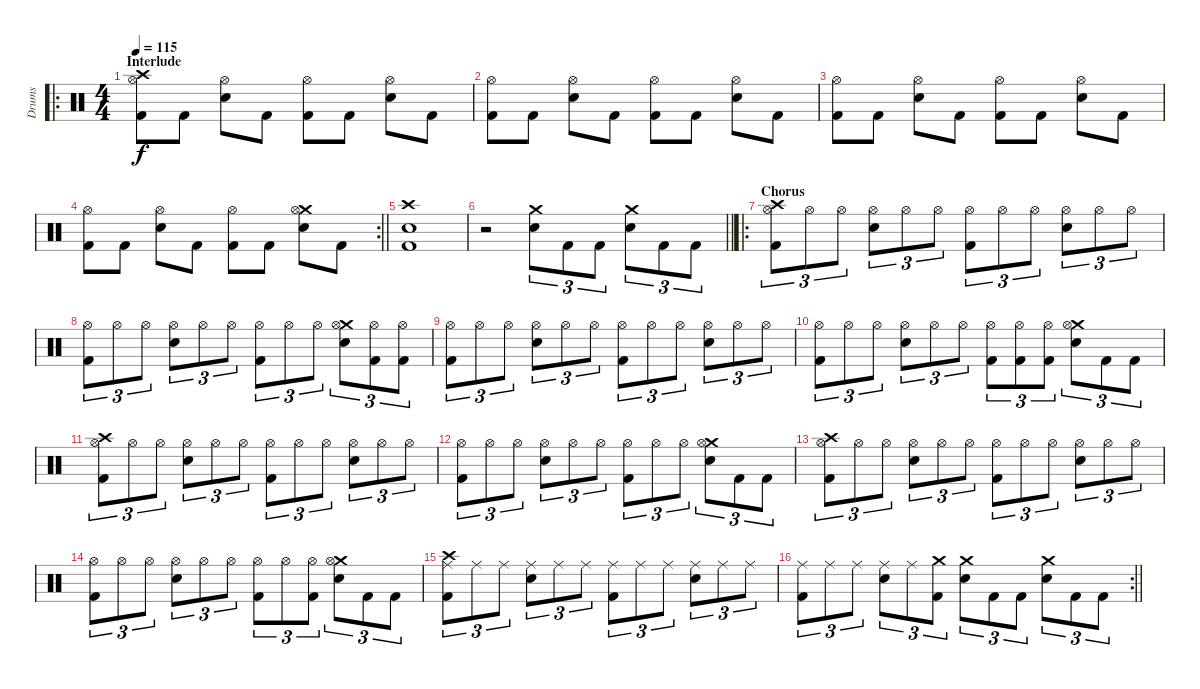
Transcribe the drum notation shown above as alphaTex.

\track ("Drums" "Drums") {instrument percussion}
\staff {score}
\articulation defaults
\ro
\ts (4 4)
\section ("" "Interlude")
\tempo 115
\clef neutral
\ks c
("Crash high (hit)" "Hi-Hat (open)" "Kick (hit) 2").8{dy f} "Kick (hit) 2".8 ("Hi-Hat (open)" "Snare (hit) 2").8 "Kick (hit) 2".8 ("Hi-Hat (open)" "Kick (hit) 2").8 "Kick (hit) 2".8 ("Hi-Hat (open)" "Snare (hit) 2").8 "Kick (hit) 2".8 |
("Hi-Hat (open)" "Kick (hit) 2").8 "Kick (hit) 2".8 ("Hi-Hat (open)" "Snare (hit) 2").8 "Kick (hit) 2".8 ("Hi-Hat (open)" "Kick (hit) 2").8 "Kick (hit) 2".8 ("Hi-Hat (open)" "Snare (hit) 2").8 "Kick (hit) 2".8 |
("Hi-Hat (open)" "Kick (hit) 2").8 "Kick (hit) 2".8 ("Hi-Hat (open)" "Snare (hit) 2").8 "Kick (hit) 2".8 ("Hi-Hat (open)" "Kick (hit) 2").8 "Kick (hit) 2".8 ("Hi-Hat (open)" "Snare (hit) 2").8 "Kick (hit) 2".8 |
\rc 2
\barLineRight lightlight
("Hi-Hat (open)" "Kick (hit) 2").8 "Kick (hit) 2".8 ("Hi-Hat (open)" "Snare (hit) 2").8 "Kick (hit) 2".8 ("Hi-Hat (open)" "Kick (hit) 2").8 "Kick (hit) 2".8 ("Crash medium (hit)" "Hi-Hat (open)" "Snare (hit) 2").8 "Kick (hit) 2".8 |
("Crash high (hit)" "Snare (hit) 2" "Kick (hit) 2").1 |
\barLineRight lightlight
r.2 ("Crash medium (hit)" "Snare (hit) 2").8{tu (3 2)} "Kick (hit) 2".8{tu (3 2)} "Kick (hit) 2".8{tu (3 2)} ("Crash medium (hit)" "Snare (hit) 2").8{tu (3 2)} "Kick (hit) 2".8{tu (3 2)} "Kick (hit) 2".8{tu (3 2)} |
\ro
\section ("" "Chorus")
("Crash high (hit)" "Hi-Hat (open)" "Kick (hit) 2").8{tu (3 2)} "Hi-Hat (open)".8{tu (3 2)} "Hi-Hat (open)".8{tu (3 2)} ("Hi-Hat (open)" "Snare (hit) 2").8{tu (3 2)} "Hi-Hat (open)".8{tu (3 2)} "Hi-Hat (open)".8{tu (3 2)} ("Hi-Hat (open)" "Kick (hit) 2").8{tu (3 2)} "Hi-Hat (open)".8{tu (3 2)} "Hi-Hat (open)".8{tu (3 2)} ("Hi-Hat (open)" "Snare (hit) 2").8{tu (3 2)} "Hi-Hat (open)".8{tu (3 2)} "Hi-Hat (open)".8{tu (3 2)} |
("Hi-Hat (open)" "Kick (hit) 2").8{tu (3 2)} "Hi-Hat (open)".8{tu (3 2)} "Hi-Hat (open)".8{tu (3 2)} ("Hi-Hat (open)" "Snare (hit) 2").8{tu (3 2)} "Hi-Hat (open)".8{tu (3 2)} "Hi-Hat (open)".8{tu (3 2)} ("Hi-Hat (open)" "Kick (hit) 2").8{tu (3 2)} "Hi-Hat (open)".8{tu (3 2)} "Hi-Hat (open)".8{tu (3 2)} ("Crash medium (hit)" "Hi-Hat (open)" "Snare (hit) 2").8{tu (3 2)} ("Hi-Hat (open)" "Kick (hit) 2").8{tu (3 2)} ("Hi-Hat (open)" "Kick (hit) 2").8{tu (3 2)} |
("Hi-Hat (open)" "Kick (hit) 2").8{tu (3 2)} "Hi-Hat (open)".8{tu (3 2)} "Hi-Hat (open)".8{tu (3 2)} ("Hi-Hat (open)" "Snare (hit) 2").8{tu (3 2)} "Hi-Hat (open)".8{tu (3 2)} "Hi-Hat (open)".8{tu (3 2)} ("Hi-Hat (open)" "Kick (hit) 2").8{tu (3 2)} "Hi-Hat (open)".8{tu (3 2)} "Hi-Hat (open)".8{tu (3 2)} ("Hi-Hat (open)" "Snare (hit) 2").8{tu (3 2)} "Hi-Hat (open)".8{tu (3 2)} "Hi-Hat (open)".8{tu (3 2)} |
("Hi-Hat (open)" "Kick (hit) 2").8{tu (3 2)} "Hi-Hat (open)".8{tu (3 2)} "Hi-Hat (open)".8{tu (3 2)} ("Hi-Hat (open)" "Snare (hit) 2").8{tu (3 2)} "Hi-Hat (open)".8{tu (3 2)} "Hi-Hat (open)".8{tu (3 2)} ("Hi-Hat (open)" "Kick (hit) 2").8{tu (3 2)} ("Hi-Hat (open)" "Kick (hit) 2").8{tu (3 2)} ("Hi-Hat (open)" "Kick (hit) 2").8{tu (3 2)} ("Crash medium (hit)" "Hi-Hat (open)" "Snare (hit) 2").8{tu (3 2)} "Kick (hit) 2".8{tu (3 2)} "Kick (hit) 2".8{tu (3 2)} |
("Crash high (hit)" "Hi-Hat (open)" "Kick (hit) 2").8{tu (3 2)} "Hi-Hat (open)".8{tu (3 2)} "Hi-Hat (open)".8{tu (3 2)} ("Hi-Hat (open)" "Snare (hit) 2").8{tu (3 2)} "Hi-Hat (open)".8{tu (3 2)} "Hi-Hat (open)".8{tu (3 2)} ("Hi-Hat (open)" "Kick (hit) 2").8{tu (3 2)} "Hi-Hat (open)".8{tu (3 2)} "Hi-Hat (open)".8{tu (3 2)} ("Hi-Hat (open)" "Snare (hit) 2").8{tu (3 2)} "Hi-Hat (open)".8{tu (3 2)} "Hi-Hat (open)".8{tu (3 2)} |
("Hi-Hat (open)" "Kick (hit) 2").8{tu (3 2)} "Hi-Hat (open)".8{tu (3 2)} "Hi-Hat (open)".8{tu (3 2)} ("Hi-Hat (open)" "Snare (hit) 2").8{tu (3 2)} "Hi-Hat (open)".8{tu (3 2)} "Hi-Hat (open)".8{tu (3 2)} ("Hi-Hat (open)" "Kick (hit) 2").8{tu (3 2)} "Hi-Hat (open)".8{tu (3 2)} "Hi-Hat (open)".8{tu (3 2)} ("Crash medium (hit)" "Hi-Hat (open)" "Snare (hit) 2").8{tu (3 2)} "Kick (hit) 2".8{tu (3 2)} "Kick (hit) 2".8{tu (3 2)} |
("Crash high (hit)" "Hi-Hat (open)" "Kick (hit) 2").8{tu (3 2)} "Hi-Hat (open)".8{tu (3 2)} "Hi-Hat (open)".8{tu (3 2)} ("Hi-Hat (open)" "Snare (hit) 2").8{tu (3 2)} "Hi-Hat (open)".8{tu (3 2)} "Hi-Hat (open)".8{tu (3 2)} ("Hi-Hat (open)" "Kick (hit) 2").8{tu (3 2)} "Hi-Hat (open)".8{tu (3 2)} "Hi-Hat (open)".8{tu (3 2)} ("Hi-Hat (open)" "Snare (hit) 2").8{tu (3 2)} "Hi-Hat (open)".8{tu (3 2)} "Hi-Hat (open)".8{tu (3 2)} |
("Hi-Hat (open)" "Kick (hit) 2").8{tu (3 2)} "Hi-Hat (open)".8{tu (3 2)} "Hi-Hat (open)".8{tu (3 2)} ("Hi-Hat (open)" "Snare (hit) 2").8{tu (3 2)} "Hi-Hat (open)".8{tu (3 2)} "Hi-Hat (open)".8{tu (3 2)} ("Hi-Hat (open)" "Kick (hit) 2").8{tu (3 2)} "Hi-Hat (open)".8{tu (3 2)} ("Hi-Hat (open)" "Kick (hit) 2").8{tu (3 2)} ("Crash medium (hit)" "Hi-Hat (open)" "Snare (hit) 2").8{tu (3 2)} "Kick (hit) 2".8{tu (3 2)} "Kick (hit) 2".8{tu (3 2)} |
("Crash high (hit)" "Ride (middle)" "Kick (hit) 2").8{tu (3 2)} "Ride (middle)".8{tu (3 2)} "Ride (middle)".8{tu (3 2)} ("Ride (middle)" "Snare (hit) 2").8{tu (3 2)} "Ride (middle)".8{tu (3 2)} "Ride (middle)".8{tu (3 2)} ("Ride (middle)" "Kick (hit) 2").8{tu (3 2)} "Ride (middle)".8{tu (3 2)} "Ride (middle)".8{tu (3 2)} ("Ride (middle)" "Snare (hit) 2").8{tu (3 2)} "Ride (middle)".8{tu (3 2)} "Ride (middle)".8{tu (3 2)} |
\rc 2
\barLineRight lightlight
("Ride (middle)" "Kick (hit) 2").8{tu (3 2)} "Ride (middle)".8{tu (3 2)} "Ride (middle)".8{tu (3 2)} ("Ride (middle)" "Snare (hit) 2").8{tu (3 2)} "Ride (middle)".8{tu (3 2)} ("Crash medium (hit)" "Kick (hit) 2").8{tu (3 2)} ("Crash medium (hit)" "Snare (hit) 2").8{tu (3 2)} "Kick (hit) 2".8{tu (3 2)} "Kick (hit) 2".8{tu (3 2)} ("Crash medium (hit)" "Snare (hit) 2").8{tu (3 2)} "Kick (hit) 2".8{tu (3 2)} "Kick (hit) 2".8{tu (3 2)}
